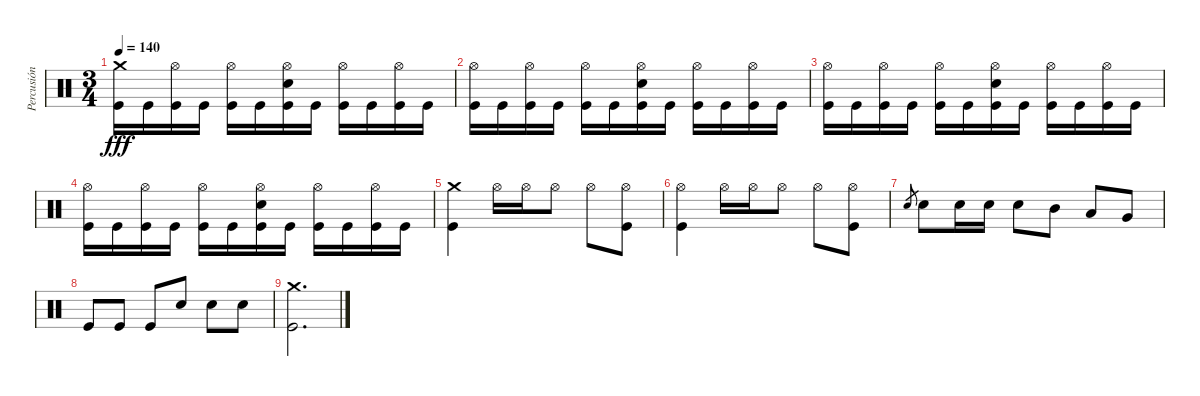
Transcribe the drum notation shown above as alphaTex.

\track ("Percusión" "Percusión") {instrument percussion}
\staff {score}
\articulation defaults
\ts (3 4)
\tempo 140
\clef neutral
\ks c
("Crash medium (hit)" "Kick (hit)").16{dy fff} "Kick (hit)".16 ("Hi-Hat (open)" "Kick (hit)").16 "Kick (hit)".16 ("Hi-Hat (open)" "Kick (hit)").16 "Kick (hit)".16 ("Hi-Hat (open)" "Snare (hit) 2" "Kick (hit)").16 "Kick (hit)".16 ("Hi-Hat (open)" "Kick (hit)").16 "Kick (hit)".16 ("Hi-Hat (open)" "Kick (hit)").16 "Kick (hit)".16 |
("Hi-Hat (open)" "Kick (hit)").16 "Kick (hit)".16 ("Hi-Hat (open)" "Kick (hit)").16 "Kick (hit)".16 ("Hi-Hat (open)" "Kick (hit)").16 "Kick (hit)".16 ("Hi-Hat (open)" "Snare (hit) 2" "Kick (hit)").16 "Kick (hit)".16 ("Hi-Hat (open)" "Kick (hit)").16 "Kick (hit)".16 ("Hi-Hat (open)" "Kick (hit)").16 "Kick (hit)".16 |
("Hi-Hat (open)" "Kick (hit)").16 "Kick (hit)".16 ("Hi-Hat (open)" "Kick (hit)").16 "Kick (hit)".16 ("Hi-Hat (open)" "Kick (hit)").16 "Kick (hit)".16 ("Hi-Hat (open)" "Snare (hit) 2" "Kick (hit)").16 "Kick (hit)".16 ("Hi-Hat (open)" "Kick (hit)").16 "Kick (hit)".16 ("Hi-Hat (open)" "Kick (hit)").16 "Kick (hit)".16 |
("Hi-Hat (open)" "Kick (hit)").16 "Kick (hit)".16 ("Hi-Hat (open)" "Kick (hit)").16 "Kick (hit)".16 ("Hi-Hat (open)" "Kick (hit)").16 "Kick (hit)".16 ("Hi-Hat (open)" "Snare (hit) 2" "Kick (hit)").16 "Kick (hit)".16 ("Hi-Hat (open)" "Kick (hit)").16 "Kick (hit)".16 ("Hi-Hat (open)" "Kick (hit)").16 "Kick (hit)".16 |
("Crash medium (hit)" "Kick (hit)").4 "Hi-Hat (open)".16 "Hi-Hat (open)".16 "Hi-Hat (open)".8 "Hi-Hat (open)".8 ("Hi-Hat (open)" "Kick (hit)").8 |
("Hi-Hat (open)" "Kick (hit)").4 "Hi-Hat (open)".16 "Hi-Hat (open)".16 "Hi-Hat (open)".8 "Hi-Hat (open)".8 ("Hi-Hat (open)" "Kick (hit)").8 |
"Snare (hit) 2".8{gr} "Snare (hit) 2".8 "Snare (hit) 2".16 "Snare (hit) 2".16 "Snare (hit) 2".8 "Mid Tom (hit)".8 "Low Tom (hit)".8 "Very Low Tom (hit)".8 |
"Kick (hit)".8 "Kick (hit)".8 "Kick (hit)".8 "Snare (hit) 2".8 "Snare (hit) 2".8 "Snare (hit) 2".8 |
("Crash medium (hit)" "Kick (hit)").2{d}
